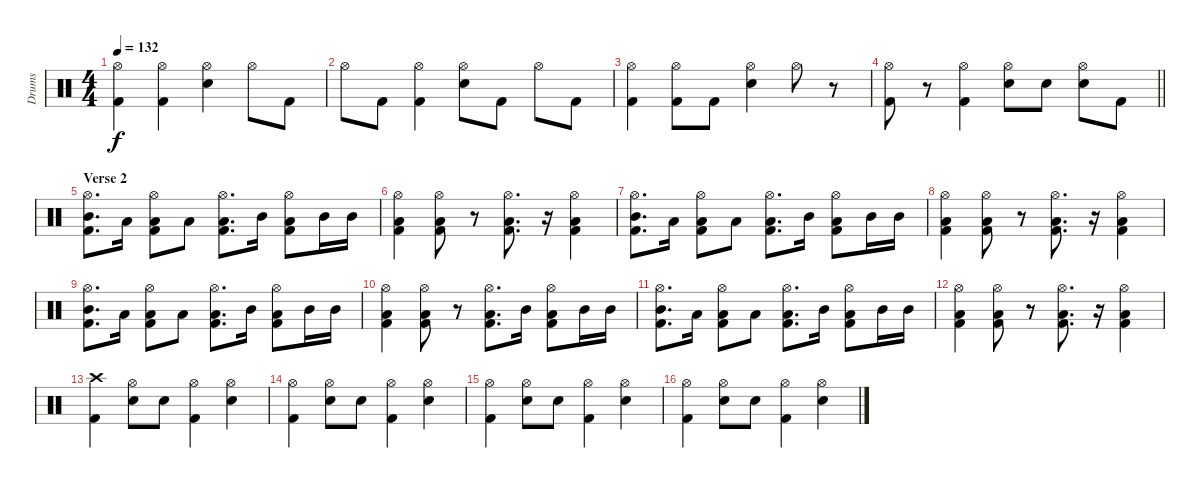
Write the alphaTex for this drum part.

\track ("Drums" "Drums") {instrument percussion}
\staff {score}
\articulation defaults
\ts (4 4)
\tempo 132
\clef neutral
\ks c
("Hi-Hat (open)" "Kick (hit) 2").4{dy f} ("Hi-Hat (open)" "Kick (hit) 2").4 ("Hi-Hat (open)" "Electric Snare (hit)").4 "Hi-Hat (open)".8 "Kick (hit) 2".8 |
"Hi-Hat (open)".8 "Kick (hit) 2".8 ("Hi-Hat (open)" "Kick (hit) 2").4 ("Hi-Hat (open)" "Electric Snare (hit)").8 "Kick (hit) 2".8 "Hi-Hat (open)".8 "Kick (hit) 2".8 |
("Hi-Hat (open)" "Kick (hit) 2").4 ("Hi-Hat (open)" "Kick (hit) 2").8 "Kick (hit) 2".8 ("Hi-Hat (open)" "Electric Snare (hit)").4 "Hi-Hat (open)".8 r.8 |
\barLineRight lightlight
("Hi-Hat (open)" "Kick (hit) 2").8 r.8 ("Hi-Hat (open)" "Kick (hit) 2").4 ("Hi-Hat (open)" "Electric Snare (hit)").8 "Electric Snare (hit)".8 ("Hi-Hat (open)" "Electric Snare (hit)").8 "Kick (hit) 2".8 |
\section ("" "Verse 2")
("Hi-Hat (open)" "Mid Tom (hit)" "Kick (hit) 2").8{d} "Low Tom (hit)".16 ("Hi-Hat (open)" "Low Tom (hit)" "Kick (hit) 2").8 "Low Tom (hit)".8 ("Hi-Hat (open)" "Low Tom (hit)" "Kick (hit) 2").8{d} "Mid Tom (hit)".16 ("Hi-Hat (open)" "Low Tom (hit)" "Kick (hit) 2").8 "Mid Tom (hit)".16 "Mid Tom (hit)".16 |
("Hi-Hat (open)" "Low Tom (hit)" "Kick (hit) 2").4 ("Hi-Hat (open)" "Low Tom (hit)" "Kick (hit) 2").8 r.8 ("Hi-Hat (open)" "Low Tom (hit)" "Kick (hit) 2").8{d} r.16 ("Hi-Hat (open)" "Low Tom (hit)" "Kick (hit) 2").4 |
("Hi-Hat (open)" "Mid Tom (hit)" "Kick (hit) 2").8{d} "Low Tom (hit)".16 ("Hi-Hat (open)" "Low Tom (hit)" "Kick (hit) 2").8 "Low Tom (hit)".8 ("Hi-Hat (open)" "Low Tom (hit)" "Kick (hit) 2").8{d} "Mid Tom (hit)".16 ("Hi-Hat (open)" "Low Tom (hit)" "Kick (hit) 2").8 "Mid Tom (hit)".16 "Mid Tom (hit)".16 |
("Hi-Hat (open)" "Low Tom (hit)" "Kick (hit) 2").4 ("Hi-Hat (open)" "Low Tom (hit)" "Kick (hit) 2").8 r.8 ("Hi-Hat (open)" "Low Tom (hit)" "Kick (hit) 2").8{d} r.16 ("Hi-Hat (open)" "Low Tom (hit)" "Kick (hit) 2").4 |
("Hi-Hat (open)" "Mid Tom (hit)" "Kick (hit) 2").8{d} "Low Tom (hit)".16 ("Hi-Hat (open)" "Low Tom (hit)" "Kick (hit) 2").8 "Low Tom (hit)".8 ("Hi-Hat (open)" "Low Tom (hit)" "Kick (hit) 2").8{d} "Mid Tom (hit)".16 ("Hi-Hat (open)" "Low Tom (hit)" "Kick (hit) 2").8 "Mid Tom (hit)".16 "Mid Tom (hit)".16 |
("Hi-Hat (open)" "Low Tom (hit)" "Kick (hit) 2").4 ("Hi-Hat (open)" "Low Tom (hit)" "Kick (hit) 2").8 r.8 ("Hi-Hat (open)" "Low Tom (hit)" "Kick (hit) 2").8{d} "Mid Tom (hit)".16 ("Hi-Hat (open)" "Low Tom (hit)" "Kick (hit) 2").8 "Mid Tom (hit)".16 "Mid Tom (hit)".16 |
("Hi-Hat (open)" "Mid Tom (hit)" "Kick (hit) 2").8{d} "Low Tom (hit)".16 ("Hi-Hat (open)" "Low Tom (hit)" "Kick (hit) 2").8 "Low Tom (hit)".8 ("Hi-Hat (open)" "Low Tom (hit)" "Kick (hit) 2").8{d} "Mid Tom (hit)".16 ("Hi-Hat (open)" "Low Tom (hit)" "Kick (hit) 2").8 "Mid Tom (hit)".16 "Mid Tom (hit)".16 |
("Hi-Hat (open)" "Low Tom (hit)" "Kick (hit) 2").4 ("Hi-Hat (open)" "Low Tom (hit)" "Kick (hit) 2").8 r.8 ("Hi-Hat (open)" "Low Tom (hit)" "Kick (hit) 2").8{d} r.16 ("Hi-Hat (open)" "Low Tom (hit)" "Kick (hit) 2").4 |
("Crash high (hit)" "Kick (hit) 2").4 ("Hi-Hat (open)" "Electric Snare (hit)").8 "Electric Snare (hit)".8 ("Hi-Hat (open)" "Kick (hit) 2").4 ("Hi-Hat (open)" "Electric Snare (hit)").4 |
("Hi-Hat (open)" "Kick (hit) 2").4 ("Hi-Hat (open)" "Electric Snare (hit)").8 "Electric Snare (hit)".8 ("Hi-Hat (open)" "Kick (hit) 2").4 ("Hi-Hat (open)" "Electric Snare (hit)").4 |
("Hi-Hat (open)" "Kick (hit) 2").4 ("Hi-Hat (open)" "Electric Snare (hit)").8 "Electric Snare (hit)".8 ("Hi-Hat (open)" "Kick (hit) 2").4 ("Hi-Hat (open)" "Electric Snare (hit)").4 |
("Hi-Hat (open)" "Kick (hit) 2").4 ("Hi-Hat (open)" "Electric Snare (hit)").8 "Electric Snare (hit)".8 ("Hi-Hat (open)" "Kick (hit) 2").4 ("Hi-Hat (open)" "Electric Snare (hit)").4
